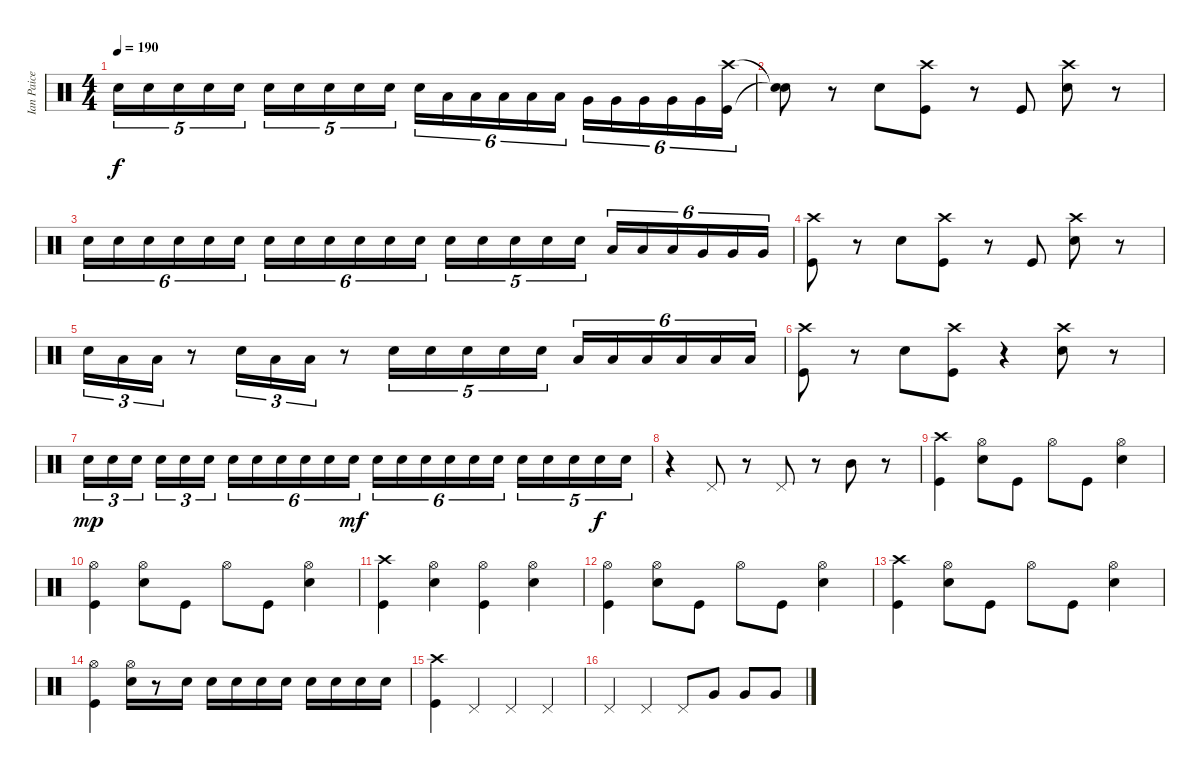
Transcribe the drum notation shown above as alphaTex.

\track ("Ian Paice" "Ian Paice") {instrument percussion}
\staff {score}
\articulation defaults
\ts (4 4)
\tempo 190
\clef neutral
\ks c "Snare (hit) 2".16{tu (5 4) dy f} "Snare (hit) 2".16{tu (5 4)} "Snare (hit) 2".16{tu (5 4)} "Snare (hit) 2".16{tu (5 4)} "Snare (hit) 2".16{tu (5 4)} "Snare (hit) 2".16{tu (5 4)} "Snare (hit) 2".16{tu (5 4)} "Snare (hit) 2".16{tu (5 4)} "Snare (hit) 2".16{tu (5 4)} "Snare (hit) 2".16{tu (5 4)} "Snare (hit) 2".16{tu (6 4)} "Low Tom (hit)".16{tu (6 4)} "Low Tom (hit)".16{tu (6 4)} "Low Tom (hit)".16{tu (6 4)} "Low Tom (hit)".16{tu (6 4)} "Low Tom (hit)".16{tu (6 4)} "Very Low Tom (hit)".16{tu (6 4)} "Very Low Tom (hit)".16{tu (6 4)} "Very Low Tom (hit)".16{tu (6 4)} "Very Low Tom (hit)".16{tu (6 4)} "Very Low Tom (hit)".16{tu (6 4)}
("Crash high (hit)" "Kick (hit)").16{tu (6 4)} |
("Snare (hit)"{t} "Snare (hit)"{t}).8 r.8 "Snare (hit) 2".8 ("Crash high (hit)" "Kick (hit)").8 r.8 "Kick (hit)".8 ("Crash high (hit)" "Snare (hit) 2").8 r.8 |
"Snare (hit) 2".16{tu (6 4)} "Snare (hit) 2".16{tu (6 4)} "Snare (hit) 2".16{tu (6 4)} "Snare (hit) 2".16{tu (6 4)} "Snare (hit) 2".16{tu (6 4)} "Snare (hit) 2".16{tu (6 4)} "Snare (hit) 2".16{tu (6 4)} "Snare (hit) 2".16{tu (6 4)} "Snare (hit) 2".16{tu (6 4)} "Snare (hit) 2".16{tu (6 4)} "Snare (hit) 2".16{tu (6 4)} "Snare (hit) 2".16{tu (6 4)} "Snare (hit) 2".16{tu (5 4)} "Snare (hit) 2".16{tu (5 4)} "Snare (hit) 2".16{tu (5 4)} "Snare (hit) 2".16{tu (5 4)} "Snare (hit) 2".16{tu (5 4)} "Low Tom (hit)".16{tu (6 4)} "Low Tom (hit)".16{tu (6 4)} "Low Tom (hit)".16{tu (6 4)} "Very Low Tom (hit)".16{tu (6 4)} "Very Low Tom (hit)".16{tu (6 4)} "Very Low Tom (hit)".16{tu (6 4)} |
("Crash high (hit)" "Kick (hit)").8 r.8 "Snare (hit) 2".8 ("Kick (hit)" "Crash high (hit)").8 r.8 "Kick (hit)".8 ("Snare (hit) 2" "Crash high (hit)").8 r.8 |
"Snare (hit) 2".16{tu (3 2)} "Low Tom (hit)".16{tu (3 2)} "Low Tom (hit)".16{tu (3 2)} r.8 "Snare (hit) 2".16{tu (3 2)} "Low Tom (hit)".16{tu (3 2)} "Low Tom (hit)".16{tu (3 2)} r.8 "Snare (hit) 2".16{tu (5 4)} "Snare (hit) 2".16{tu (5 4)} "Snare (hit) 2".16{tu (5 4)} "Snare (hit) 2".16{tu (5 4)} "Snare (hit) 2".16{tu (5 4)} "Low Tom (hit)".16{tu (6 4)} "Low Tom (hit)".16{tu (6 4)} "Low Tom (hit)".16{tu (6 4)} "Low Tom (hit)".16{tu (6 4)} "Low Tom (hit)".16{tu (6 4)} "Low Tom (hit)".16{tu (6 4)} |
("Kick (hit)" "Crash high (hit)").8 r.8 "Snare (hit) 2".8 ("Kick (hit)" "Crash high (hit)").8 r.4 ("Snare (hit) 2" "Crash high (hit)").8 r.8 |
"Snare (hit) 2".16{tu (3 2) dy mp} "Snare (hit) 2".16{tu (3 2)} "Snare (hit) 2".16{tu (3 2)} "Snare (hit) 2".16{tu (3 2)} "Snare (hit) 2".16{tu (3 2)} "Snare (hit) 2".16{tu (3 2)} "Snare (hit) 2".16{tu (6 4)} "Snare (hit) 2".16{tu (6 4)} "Snare (hit) 2".16{tu (6 4)} "Snare (hit) 2".16{tu (6 4)} "Snare (hit) 2".16{tu (6 4)} "Snare (hit) 2".16{tu (6 4) dy mf} "Snare (hit) 2".16{tu (6 4)} "Snare (hit) 2".16{tu (6 4)} "Snare (hit) 2".16{tu (6 4)} "Snare (hit) 2".16{tu (6 4)} "Snare (hit) 2".16{tu (6 4)} "Snare (hit) 2".16{tu (6 4)} "Snare (hit) 2".16{tu (5 4)} "Snare (hit) 2".16{tu (5 4)} "Snare (hit) 2".16{tu (5 4)} "Snare (hit) 2".16{tu (5 4) dy f} "Snare (hit) 2".16{tu (5 4)} |
r.4 "Pedal Hi-Hat (hit)".8 r.8 "Pedal Hi-Hat (hit)".8 r.8 "Mid Tom (hit)".8 r.8 |
("Crash high (hit)" "Kick (hit)").4 ("Hi-Hat (open)" "Snare (hit) 2").8 "Kick (hit)".8 "Hi-Hat (open)".8 "Kick (hit)".8 ("Snare (hit) 2" "Hi-Hat (open)").4 |
("Kick (hit)" "Hi-Hat (open)").4 ("Snare (hit) 2" "Hi-Hat (open)").8 "Kick (hit)".8 "Hi-Hat (open)".8 "Kick (hit)".8 ("Hi-Hat (open)" "Snare (hit) 2").4 |
("Crash high (hit)" "Kick (hit)").4 ("Hi-Hat (open)" "Snare (hit) 2").4 ("Hi-Hat (open)" "Kick (hit)").4 ("Hi-Hat (open)" "Snare (hit) 2").4 |
("Hi-Hat (open)" "Kick (hit)").4 ("Snare (hit) 2" "Hi-Hat (open)").8 "Kick (hit)".8 "Hi-Hat (open)".8 "Kick (hit)".8 ("Snare (hit) 2" "Hi-Hat (open)").4 |
("Crash high (hit)" "Kick (hit)").4 ("Hi-Hat (open)" "Snare (hit) 2").8 "Kick (hit)".8 "Hi-Hat (open)".8 "Kick (hit)".8 ("Hi-Hat (open)" "Snare (hit) 2").4 |
("Hi-Hat (open)" "Kick (hit)").4 ("Hi-Hat (open)" "Snare (hit) 2").16 r.8 "Snare (hit) 2".16 "Snare (hit) 2".16 "Snare (hit) 2".16 "Snare (hit) 2".16 "Snare (hit) 2".16 "Snare (hit) 2".16 "Snare (hit) 2".16 "Snare (hit) 2".16 "Snare (hit) 2".16 |
("Crash high (hit)" "Kick (hit)").4 "Pedal Hi-Hat (hit)".4 "Pedal Hi-Hat (hit)".4 "Pedal Hi-Hat (hit)".4 |
"Pedal Hi-Hat (hit)".4 "Pedal Hi-Hat (hit)".4 "Pedal Hi-Hat (hit)".8 "Very Low Tom (hit)".8 "Very Low Tom (hit)".8 "Very Low Tom (hit)".8
